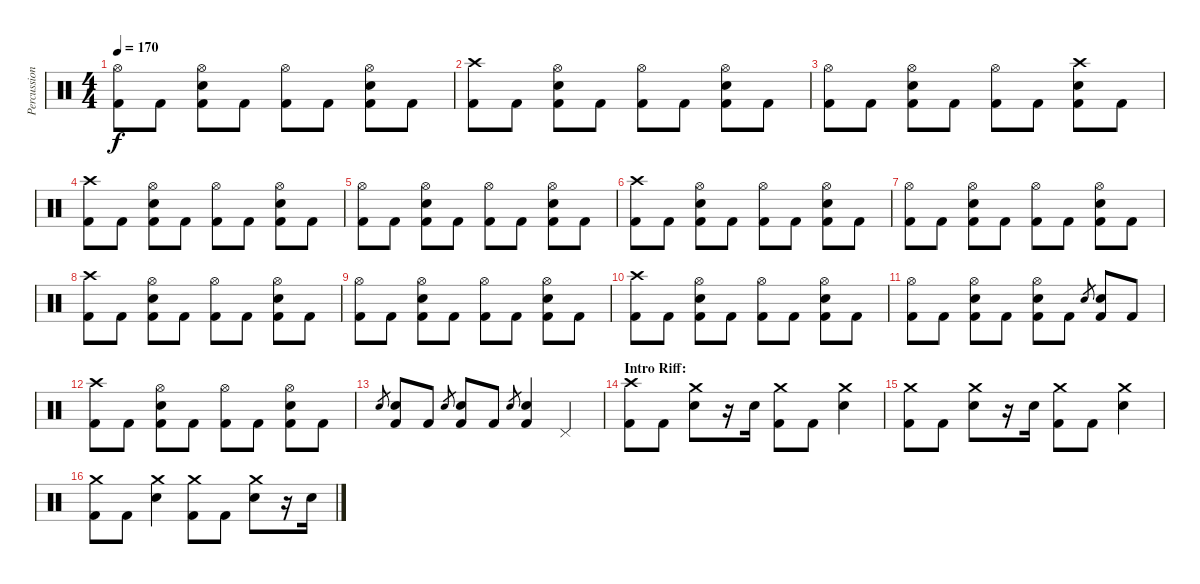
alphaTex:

\track ("Percussion" "Percussion") {instrument percussion}
\staff {score}
\articulation defaults
\ts (4 4)
\tempo 170
\clef neutral
\ks c
("Hi-Hat (open)" "Kick (hit) 2").8{dy f} "Kick (hit) 2".8 ("Hi-Hat (open)" "Snare (hit) 2" "Kick (hit) 2").8 "Kick (hit) 2".8 ("Hi-Hat (open)" "Kick (hit) 2").8 "Kick (hit) 2".8 ("Hi-Hat (open)" "Snare (hit) 2" "Kick (hit) 2").8 "Kick (hit) 2".8 |
("Crash high (hit)" "Kick (hit) 2").8 "Kick (hit) 2".8 ("Hi-Hat (open)" "Snare (hit) 2" "Kick (hit) 2").8 "Kick (hit) 2".8 ("Hi-Hat (open)" "Kick (hit) 2").8 "Kick (hit) 2".8 ("Hi-Hat (open)" "Snare (hit) 2" "Kick (hit) 2").8 "Kick (hit) 2".8 |
("Hi-Hat (open)" "Kick (hit) 2").8 "Kick (hit) 2".8 ("Hi-Hat (open)" "Snare (hit) 2" "Kick (hit) 2").8 "Kick (hit) 2".8 ("Hi-Hat (open)" "Kick (hit) 2").8 "Kick (hit) 2".8 ("Crash high (hit)" "Snare (hit) 2" "Kick (hit) 2").8 "Kick (hit) 2".8 |
("Crash high (hit)" "Kick (hit) 2").8 "Kick (hit) 2".8 ("Hi-Hat (open)" "Snare (hit) 2" "Kick (hit) 2").8 "Kick (hit) 2".8 ("Hi-Hat (open)" "Kick (hit) 2").8 "Kick (hit) 2".8 ("Hi-Hat (open)" "Snare (hit) 2" "Kick (hit) 2").8 "Kick (hit) 2".8 |
("Hi-Hat (open)" "Kick (hit) 2").8 "Kick (hit) 2".8 ("Hi-Hat (open)" "Snare (hit) 2" "Kick (hit) 2").8 "Kick (hit) 2".8 ("Hi-Hat (open)" "Kick (hit) 2").8 "Kick (hit) 2".8 ("Hi-Hat (open)" "Snare (hit) 2" "Kick (hit) 2").8 "Kick (hit) 2".8 |
("Crash high (hit)" "Kick (hit) 2").8 "Kick (hit) 2".8 ("Hi-Hat (open)" "Snare (hit) 2" "Kick (hit) 2").8 "Kick (hit) 2".8 ("Hi-Hat (open)" "Kick (hit) 2").8 "Kick (hit) 2".8 ("Hi-Hat (open)" "Snare (hit) 2" "Kick (hit) 2").8 "Kick (hit) 2".8 |
("Hi-Hat (open)" "Kick (hit) 2").8 "Kick (hit) 2".8 ("Hi-Hat (open)" "Snare (hit) 2" "Kick (hit) 2").8 "Kick (hit) 2".8 ("Hi-Hat (open)" "Kick (hit) 2").8 "Kick (hit) 2".8 ("Hi-Hat (open)" "Snare (hit) 2" "Kick (hit) 2").8 "Kick (hit) 2".8 |
("Crash high (hit)" "Kick (hit) 2").8 "Kick (hit) 2".8 ("Hi-Hat (open)" "Snare (hit) 2" "Kick (hit) 2").8 "Kick (hit) 2".8 ("Hi-Hat (open)" "Kick (hit) 2").8 "Kick (hit) 2".8 ("Hi-Hat (open)" "Snare (hit) 2" "Kick (hit) 2").8 "Kick (hit) 2".8 |
("Hi-Hat (open)" "Kick (hit) 2").8 "Kick (hit) 2".8 ("Hi-Hat (open)" "Snare (hit) 2" "Kick (hit) 2").8 "Kick (hit) 2".8 ("Hi-Hat (open)" "Kick (hit) 2").8 "Kick (hit) 2".8 ("Hi-Hat (open)" "Snare (hit) 2" "Kick (hit) 2").8 "Kick (hit) 2".8 |
("Crash high (hit)" "Kick (hit) 2").8 "Kick (hit) 2".8 ("Hi-Hat (open)" "Snare (hit) 2" "Kick (hit) 2").8 "Kick (hit) 2".8 ("Hi-Hat (open)" "Kick (hit) 2").8 "Kick (hit) 2".8 ("Hi-Hat (open)" "Snare (hit) 2" "Kick (hit) 2").8 "Kick (hit) 2".8 |
("Hi-Hat (open)" "Kick (hit) 2").8 "Kick (hit) 2".8 ("Hi-Hat (open)" "Snare (hit) 2" "Kick (hit) 2").8 "Kick (hit) 2".8 ("Hi-Hat (open)" "Snare (hit) 2" "Kick (hit) 2").8 "Kick (hit) 2".8 "Snare (hit) 2".8{gr} ("Snare (hit) 2" "Kick (hit) 2").8 "Kick (hit) 2".8 |
("Crash high (hit)" "Kick (hit) 2").8 "Kick (hit) 2".8 ("Hi-Hat (open)" "Snare (hit) 2" "Kick (hit) 2").8 "Kick (hit) 2".8 ("Hi-Hat (open)" "Kick (hit) 2").8 "Kick (hit) 2".8 ("Hi-Hat (open)" "Snare (hit) 2" "Kick (hit) 2").8 "Kick (hit) 2".8 |
"Snare (hit) 2".8{gr} ("Snare (hit) 2" "Kick (hit) 2").8 "Kick (hit) 2".8 "Snare (hit) 2".8{gr} ("Snare (hit) 2" "Kick (hit) 2").8 "Kick (hit) 2".8 "Snare (hit) 2".8{gr} ("Snare (hit) 2" "Kick (hit) 2").4 "Pedal Hi-Hat (hit)".4 |
\section ("" "Intro Riff:")
("Crash high (hit)" "Kick (hit) 2").8 "Kick (hit) 2".8 ("Crash medium (hit)" "Snare (hit) 2").8 r.16 "Snare (hit) 2".16 ("Crash medium (hit)" "Kick (hit) 2").8 "Kick (hit) 2".8 ("Crash medium (hit)" "Snare (hit) 2").4 |
("Crash medium (hit)" "Kick (hit) 2").8 "Kick (hit) 2".8 ("Crash medium (hit)" "Snare (hit) 2").8 r.16 "Snare (hit) 2".16 ("Crash medium (hit)" "Kick (hit) 2").8 "Kick (hit) 2".8 ("Crash medium (hit)" "Snare (hit) 2").4 |
("Crash medium (hit)" "Kick (hit) 2").8 "Kick (hit) 2".8 ("Crash medium (hit)" "Snare (hit) 2").4 ("Crash medium (hit)" "Kick (hit) 2").8 "Kick (hit) 2".8 ("Crash medium (hit)" "Snare (hit) 2").8 r.16 "Snare (hit) 2".16
